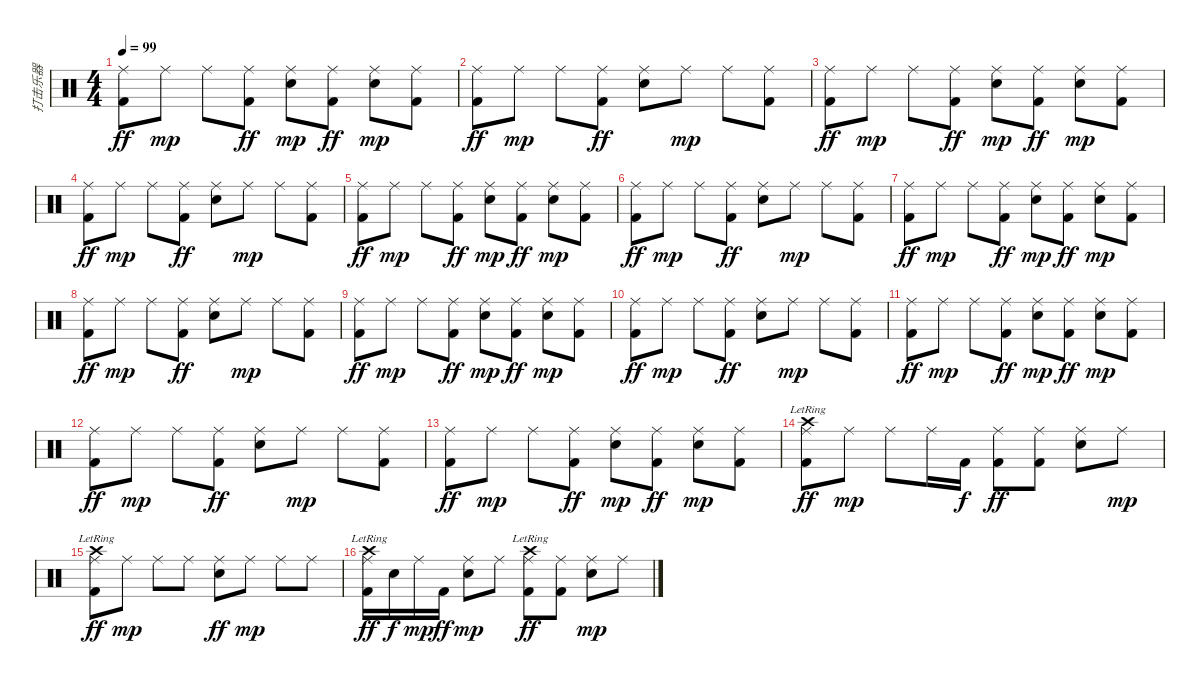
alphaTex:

\track ("打击乐器" "打击乐器") {instrument percussion}
\staff {score}
\articulation defaults
\ts (4 4)
\tempo 99
\clef neutral
\ks c
("Ride (middle)" "Kick (hit) 2").8{dy ff} "Ride (middle)".8{dy mp} "Ride (middle)".8 ("Ride (middle)" "Kick (hit) 2").8{dy ff} ("Ride (middle)" "Snare (hit) 2").8{dy mp} ("Ride (middle)" "Kick (hit) 2").8{dy ff} ("Ride (middle)" "Snare (hit) 2").8{dy mp} ("Ride (middle)" "Kick (hit) 2").8 |
("Ride (middle)" "Kick (hit) 2").8{dy ff} "Ride (middle)".8{dy mp} "Ride (middle)".8 ("Ride (middle)" "Kick (hit) 2").8{dy ff} ("Ride (middle)" "Snare (hit) 2").8 "Ride (middle)".8{dy mp} "Ride (middle)".8 ("Ride (middle)" "Kick (hit) 2").8 |
("Ride (middle)" "Kick (hit) 2").8{dy ff} "Ride (middle)".8{dy mp} "Ride (middle)".8 ("Ride (middle)" "Kick (hit) 2").8{dy ff} ("Ride (middle)" "Snare (hit) 2").8{dy mp} ("Ride (middle)" "Kick (hit) 2").8{dy ff} ("Ride (middle)" "Snare (hit) 2").8{dy mp} ("Ride (middle)" "Kick (hit) 2").8 |
("Ride (middle)" "Kick (hit) 2").8{dy ff} "Ride (middle)".8{dy mp} "Ride (middle)".8 ("Ride (middle)" "Kick (hit) 2").8{dy ff} ("Ride (middle)" "Snare (hit) 2").8 "Ride (middle)".8{dy mp} "Ride (middle)".8 ("Ride (middle)" "Kick (hit) 2").8 |
("Ride (middle)" "Kick (hit) 2").8{dy ff} "Ride (middle)".8{dy mp} "Ride (middle)".8 ("Ride (middle)" "Kick (hit) 2").8{dy ff} ("Ride (middle)" "Snare (hit) 2").8{dy mp} ("Ride (middle)" "Kick (hit) 2").8{dy ff} ("Ride (middle)" "Snare (hit) 2").8{dy mp} ("Ride (middle)" "Kick (hit) 2").8 |
("Ride (middle)" "Kick (hit) 2").8{dy ff} "Ride (middle)".8{dy mp} "Ride (middle)".8 ("Ride (middle)" "Kick (hit) 2").8{dy ff} ("Ride (middle)" "Snare (hit) 2").8 "Ride (middle)".8{dy mp} "Ride (middle)".8 ("Ride (middle)" "Kick (hit) 2").8 |
("Ride (middle)" "Kick (hit) 2").8{dy ff} "Ride (middle)".8{dy mp} "Ride (middle)".8 ("Ride (middle)" "Kick (hit) 2").8{dy ff} ("Ride (middle)" "Snare (hit) 2").8{dy mp} ("Ride (middle)" "Kick (hit) 2").8{dy ff} ("Ride (middle)" "Snare (hit) 2").8{dy mp} ("Ride (middle)" "Kick (hit) 2").8 |
("Ride (middle)" "Kick (hit) 2").8{dy ff} "Ride (middle)".8{dy mp} "Ride (middle)".8 ("Ride (middle)" "Kick (hit) 2").8{dy ff} ("Ride (middle)" "Snare (hit) 2").8 "Ride (middle)".8{dy mp} "Ride (middle)".8 ("Ride (middle)" "Kick (hit) 2").8 |
("Ride (middle)" "Kick (hit) 2").8{dy ff} "Ride (middle)".8{dy mp} "Ride (middle)".8 ("Ride (middle)" "Kick (hit) 2").8{dy ff} ("Ride (middle)" "Snare (hit) 2").8{dy mp} ("Ride (middle)" "Kick (hit) 2").8{dy ff} ("Ride (middle)" "Snare (hit) 2").8{dy mp} ("Ride (middle)" "Kick (hit) 2").8 |
("Ride (middle)" "Kick (hit) 2").8{dy ff} "Ride (middle)".8{dy mp} "Ride (middle)".8 ("Ride (middle)" "Kick (hit) 2").8{dy ff} ("Ride (middle)" "Snare (hit) 2").8 "Ride (middle)".8{dy mp} "Ride (middle)".8 ("Ride (middle)" "Kick (hit) 2").8 |
("Ride (middle)" "Kick (hit) 2").8{dy ff} "Ride (middle)".8{dy mp} "Ride (middle)".8 ("Ride (middle)" "Kick (hit) 2").8{dy ff} ("Ride (middle)" "Snare (hit) 2").8{dy mp} ("Ride (middle)" "Kick (hit) 2").8{dy ff} ("Ride (middle)" "Snare (hit) 2").8{dy mp} ("Ride (middle)" "Kick (hit) 2").8 |
("Ride (middle)" "Kick (hit) 2").8{dy ff} "Ride (middle)".8{dy mp} "Ride (middle)".8 ("Ride (middle)" "Kick (hit) 2").8{dy ff} ("Ride (middle)" "Snare (hit) 2").8 "Ride (middle)".8{dy mp} "Ride (middle)".8 ("Ride (middle)" "Kick (hit) 2").8 |
("Ride (middle)" "Kick (hit) 2").8{dy ff} "Ride (middle)".8{dy mp} "Ride (middle)".8 ("Ride (middle)" "Kick (hit) 2").8{dy ff} ("Ride (middle)" "Snare (hit) 2").8{dy mp} ("Ride (middle)" "Kick (hit) 2").8{dy ff} ("Ride (middle)" "Snare (hit) 2").8{dy mp} ("Ride (middle)" "Kick (hit) 2").8 |
("Ride (middle)" "Crash high (hit)"{lr} "Kick (hit) 2").8{dy ff} "Ride (middle)".8{dy mp} "Ride (middle)".8 "Ride (middle)".16 "Kick (hit) 2".16{dy f} ("Ride (middle)" "Kick (hit) 2").8{dy ff} ("Ride (middle)" "Kick (hit) 2").8 ("Ride (middle)" "Snare (hit) 2").8 "Ride (middle)".8{dy mp} |
("Ride (middle)" "Crash high (hit)"{lr} "Kick (hit) 2").8{dy ff} "Ride (middle)".8{dy mp} "Ride (middle)".8 "Ride (middle)".8 ("Ride (middle)" "Snare (hit) 2").8{dy ff} "Ride (middle)".8{dy mp} "Ride (middle)".8 "Ride (middle)".8 |
("Ride (middle)" "Crash high (hit)"{lr} "Kick (hit) 2").16{dy ff} "Snare (hit) 2".16{dy f} "Ride (middle)".16{dy mp} "Kick (hit) 2".16{dy ff} ("Ride (middle)" "Snare (hit) 2").8{dy mp} "Ride (middle)".8 ("Ride (middle)" "Crash high (hit)"{lr} "Kick (hit) 2").8{dy ff} ("Ride (middle)" "Kick (hit) 2").8 ("Ride (middle)" "Snare (hit) 2").8{dy mp} "Ride (middle)".8
